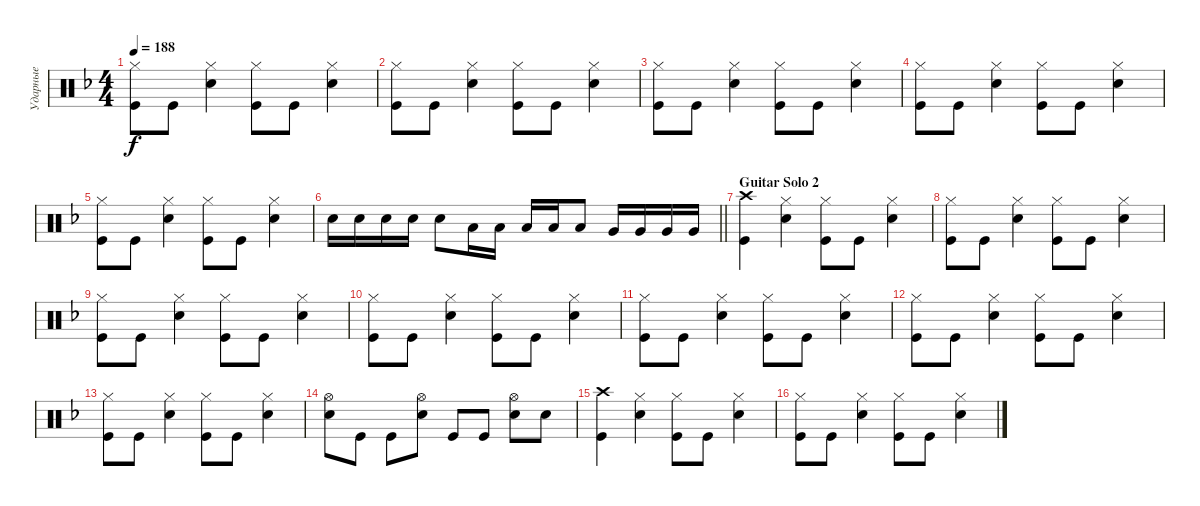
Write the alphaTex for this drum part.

\track ("Ударные" "Ударные") {instrument percussion}
\staff {score}
\articulation defaults
\ts (4 4)
\tempo 188
\clef neutral
\ks dminor
("Kick (hit)" "Hi-Hat (closed)").8{dy f} "Kick (hit)".8 ("Snare (hit) 2" "Hi-Hat (closed)").4 ("Kick (hit)" "Hi-Hat (closed)").8 "Kick (hit)".8 ("Hi-Hat (closed)" "Snare (hit) 2").4 |
("Kick (hit)" "Hi-Hat (closed)").8 "Kick (hit)".8 ("Snare (hit) 2" "Hi-Hat (closed)").4 ("Kick (hit)" "Hi-Hat (closed)").8 "Kick (hit)".8 ("Hi-Hat (closed)" "Snare (hit) 2").4 |
("Kick (hit)" "Hi-Hat (closed)").8 "Kick (hit)".8 ("Snare (hit) 2" "Hi-Hat (closed)").4 ("Kick (hit)" "Hi-Hat (closed)").8 "Kick (hit)".8 ("Hi-Hat (closed)" "Snare (hit) 2").4 |
("Kick (hit)" "Hi-Hat (closed)").8 "Kick (hit)".8 ("Snare (hit) 2" "Hi-Hat (closed)").4 ("Kick (hit)" "Hi-Hat (closed)").8 "Kick (hit)".8 ("Hi-Hat (closed)" "Snare (hit) 2").4 |
("Kick (hit)" "Hi-Hat (closed)").8 "Kick (hit)".8 ("Snare (hit) 2" "Hi-Hat (closed)").4 ("Kick (hit)" "Hi-Hat (closed)").8 "Kick (hit)".8 ("Hi-Hat (closed)" "Snare (hit) 2").4 |
\barLineRight lightlight "Snare (hit) 2".16 "Snare (hit) 2".16 "Snare (hit) 2".16 "Snare (hit) 2".16 "Snare (hit) 2".8 "Low Tom (hit)".16 "Low Tom (hit)".16 "Low Tom (hit)".16 "Low Tom (hit)".16 "Low Tom (hit)".8 "Very Low Tom (hit)".16 "Very Low Tom (hit)".16 "Very Low Tom (hit)".16 "Very Low Tom (hit)".16
|
\section ("" "Guitar Solo 2")
("Kick (hit)" "Crash high (hit)").4 ("Snare (hit) 2" "Hi-Hat (closed)").4 ("Kick (hit)" "Hi-Hat (closed)").8 "Kick (hit)".8 ("Hi-Hat (closed)" "Snare (hit) 2").4 |
("Kick (hit)" "Hi-Hat (closed)").8 "Kick (hit)".8 ("Snare (hit) 2" "Hi-Hat (closed)").4 ("Kick (hit)" "Hi-Hat (closed)").8 "Kick (hit)".8 ("Hi-Hat (closed)" "Snare (hit) 2").4 |
("Kick (hit)" "Hi-Hat (closed)").8 "Kick (hit)".8 ("Snare (hit) 2" "Hi-Hat (closed)").4 ("Kick (hit)" "Hi-Hat (closed)").8 "Kick (hit)".8 ("Hi-Hat (closed)" "Snare (hit) 2").4 |
("Kick (hit)" "Hi-Hat (closed)").8 "Kick (hit)".8 ("Snare (hit) 2" "Hi-Hat (closed)").4 ("Kick (hit)" "Hi-Hat (closed)").8 "Kick (hit)".8 ("Hi-Hat (closed)" "Snare (hit) 2").4 |
("Kick (hit)" "Hi-Hat (closed)").8 "Kick (hit)".8 ("Snare (hit) 2" "Hi-Hat (closed)").4 ("Kick (hit)" "Hi-Hat (closed)").8 "Kick (hit)".8 ("Hi-Hat (closed)" "Snare (hit) 2").4 |
("Kick (hit)" "Hi-Hat (closed)").8 "Kick (hit)".8 ("Snare (hit) 2" "Hi-Hat (closed)").4 ("Kick (hit)" "Hi-Hat (closed)").8 "Kick (hit)".8 ("Hi-Hat (closed)" "Snare (hit) 2").4 |
("Kick (hit)" "Hi-Hat (closed)").8 "Kick (hit)".8 ("Snare (hit) 2" "Hi-Hat (closed)").4 ("Kick (hit)" "Hi-Hat (closed)").8 "Kick (hit)".8 ("Hi-Hat (closed)" "Snare (hit) 2").4 |
("Snare (hit) 2" "Hi-Hat (open)").8 "Kick (hit)".8 "Kick (hit)".8 ("Snare (hit) 2" "Hi-Hat (open)").8 "Kick (hit)".8 "Kick (hit)".8 ("Snare (hit) 2" "Hi-Hat (open)").8 "Snare (hit) 2".8 |
("Kick (hit)" "Crash high (hit)").4 ("Snare (hit) 2" "Hi-Hat (closed)").4 ("Kick (hit)" "Hi-Hat (closed)").8 "Kick (hit)".8 ("Hi-Hat (closed)" "Snare (hit) 2").4 |
("Kick (hit)" "Hi-Hat (closed)").8 "Kick (hit)".8 ("Snare (hit) 2" "Hi-Hat (closed)").4 ("Kick (hit)" "Hi-Hat (closed)").8 "Kick (hit)".8 ("Hi-Hat (closed)" "Snare (hit) 2").4
